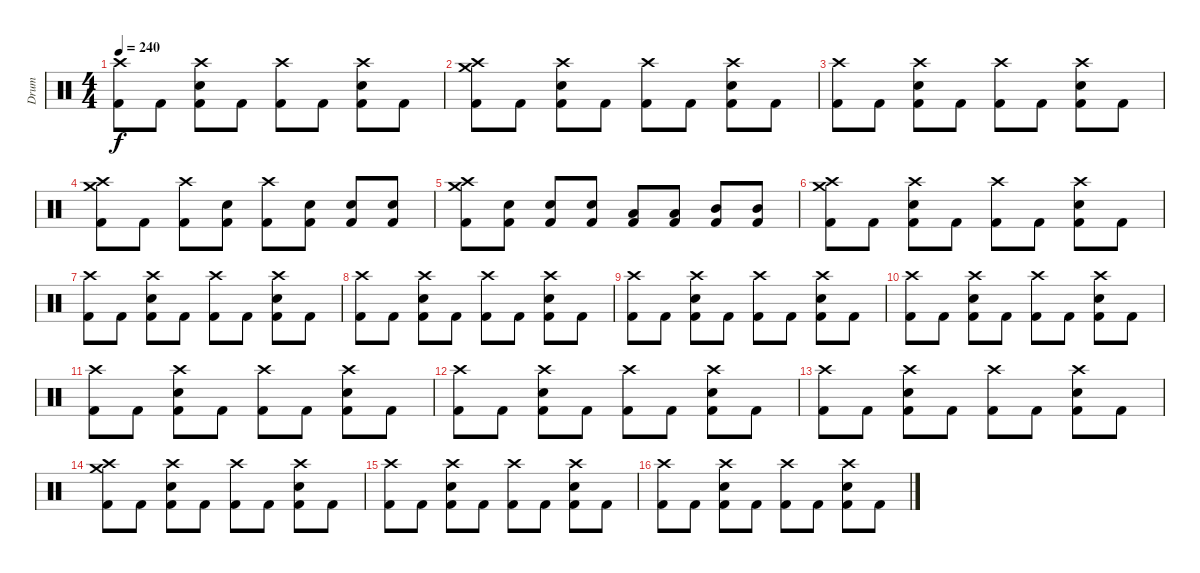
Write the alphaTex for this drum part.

\track ("Drum" "Drum") {instrument percussion}
\staff {score}
\articulation defaults
\ts (4 4)
\tempo 240
\clef neutral
\ks c
("Crash high (hit)" "Kick (hit) 2").8{dy f} "Kick (hit) 2".8 ("Crash high (hit)" "Kick (hit) 2" "Electric Snare (hit)").8 "Kick (hit) 2".8 ("Crash high (hit)" "Kick (hit) 2").8 "Kick (hit) 2".8 ("Crash high (hit)" "Kick (hit) 2" "Electric Snare (hit)").8 "Kick (hit) 2".8 |
("Crash high (hit)" "Kick (hit) 2" "Crash medium (hit)").8 "Kick (hit) 2".8 ("Crash high (hit)" "Kick (hit) 2" "Electric Snare (hit)").8 "Kick (hit) 2".8 ("Crash high (hit)" "Kick (hit) 2").8 "Kick (hit) 2".8 ("Crash high (hit)" "Kick (hit) 2" "Electric Snare (hit)").8 "Kick (hit) 2".8 |
("Crash high (hit)" "Kick (hit) 2").8 "Kick (hit) 2".8 ("Crash high (hit)" "Kick (hit) 2" "Electric Snare (hit)").8 "Kick (hit) 2".8 ("Crash high (hit)" "Kick (hit) 2").8 "Kick (hit) 2".8 ("Crash high (hit)" "Kick (hit) 2" "Electric Snare (hit)").8 "Kick (hit) 2".8 |
("Crash high (hit)" "Kick (hit) 2" "Crash medium (hit)").8 "Kick (hit) 2".8 ("Crash high (hit)" "Kick (hit) 2").8 ("Kick (hit) 2" "Electric Snare (hit)").8 ("Crash high (hit)" "Kick (hit) 2").8 ("Kick (hit) 2" "Electric Snare (hit)").8 ("Kick (hit) 2" "Electric Snare (hit)").8 ("Kick (hit) 2" "Electric Snare (hit)").8 |
("Crash high (hit)" "Kick (hit) 2" "Crash medium (hit)").8 ("Kick (hit) 2" "Electric Snare (hit)").8 ("Kick (hit) 2" "Electric Snare (hit)").8 ("Kick (hit) 2" "Electric Snare (hit)").8 ("Kick (hit) 2" "Low Tom (hit)").8 ("Kick (hit) 2" "Low Tom (hit)").8 ("Kick (hit) 2" "Mid Tom (hit)").8 ("Kick (hit) 2" "Mid Tom (hit)").8 |
("Crash high (hit)" "Kick (hit) 2" "Crash medium (hit)").8 "Kick (hit) 2".8 ("Crash high (hit)" "Kick (hit) 2" "Electric Snare (hit)").8 "Kick (hit) 2".8 ("Crash high (hit)" "Kick (hit) 2").8 "Kick (hit) 2".8 ("Crash high (hit)" "Kick (hit) 2" "Electric Snare (hit)").8 "Kick (hit) 2".8 |
("Crash high (hit)" "Kick (hit) 2").8 "Kick (hit) 2".8 ("Crash high (hit)" "Kick (hit) 2" "Electric Snare (hit)").8 "Kick (hit) 2".8 ("Crash high (hit)" "Kick (hit) 2").8 "Kick (hit) 2".8 ("Crash high (hit)" "Kick (hit) 2" "Electric Snare (hit)").8 "Kick (hit) 2".8 |
("Crash high (hit)" "Kick (hit) 2").8 "Kick (hit) 2".8 ("Crash high (hit)" "Kick (hit) 2" "Electric Snare (hit)").8 "Kick (hit) 2".8 ("Crash high (hit)" "Kick (hit) 2").8 "Kick (hit) 2".8 ("Crash high (hit)" "Kick (hit) 2" "Electric Snare (hit)").8 "Kick (hit) 2".8 |
("Crash high (hit)" "Kick (hit) 2").8 "Kick (hit) 2".8 ("Crash high (hit)" "Kick (hit) 2" "Electric Snare (hit)").8 "Kick (hit) 2".8 ("Crash high (hit)" "Kick (hit) 2").8 "Kick (hit) 2".8 ("Crash high (hit)" "Kick (hit) 2" "Electric Snare (hit)").8 "Kick (hit) 2".8 |
("Crash high (hit)" "Kick (hit) 2").8 "Kick (hit) 2".8 ("Crash high (hit)" "Kick (hit) 2" "Electric Snare (hit)").8 "Kick (hit) 2".8 ("Crash high (hit)" "Kick (hit) 2").8 "Kick (hit) 2".8 ("Crash high (hit)" "Kick (hit) 2" "Electric Snare (hit)").8 "Kick (hit) 2".8 |
("Crash high (hit)" "Kick (hit) 2").8 "Kick (hit) 2".8 ("Crash high (hit)" "Kick (hit) 2" "Electric Snare (hit)").8 "Kick (hit) 2".8 ("Crash high (hit)" "Kick (hit) 2").8 "Kick (hit) 2".8 ("Crash high (hit)" "Kick (hit) 2" "Electric Snare (hit)").8 "Kick (hit) 2".8 |
("Crash high (hit)" "Kick (hit) 2").8 "Kick (hit) 2".8 ("Crash high (hit)" "Kick (hit) 2" "Electric Snare (hit)").8 "Kick (hit) 2".8 ("Crash high (hit)" "Kick (hit) 2").8 "Kick (hit) 2".8 ("Crash high (hit)" "Kick (hit) 2" "Electric Snare (hit)").8 "Kick (hit) 2".8 |
("Crash high (hit)" "Kick (hit) 2").8 "Kick (hit) 2".8 ("Crash high (hit)" "Kick (hit) 2" "Electric Snare (hit)").8 "Kick (hit) 2".8 ("Crash high (hit)" "Kick (hit) 2").8 "Kick (hit) 2".8 ("Crash high (hit)" "Kick (hit) 2" "Electric Snare (hit)").8 "Kick (hit) 2".8 |
("Crash high (hit)" "Kick (hit) 2" "Crash medium (hit)").8 "Kick (hit) 2".8 ("Crash high (hit)" "Kick (hit) 2" "Electric Snare (hit)").8 "Kick (hit) 2".8 ("Crash high (hit)" "Kick (hit) 2").8 "Kick (hit) 2".8 ("Crash high (hit)" "Kick (hit) 2" "Electric Snare (hit)").8 "Kick (hit) 2".8 |
("Crash high (hit)" "Kick (hit) 2").8 "Kick (hit) 2".8 ("Crash high (hit)" "Kick (hit) 2" "Electric Snare (hit)").8 "Kick (hit) 2".8 ("Crash high (hit)" "Kick (hit) 2").8 "Kick (hit) 2".8 ("Crash high (hit)" "Kick (hit) 2" "Electric Snare (hit)").8 "Kick (hit) 2".8 |
("Crash high (hit)" "Kick (hit) 2").8 "Kick (hit) 2".8 ("Crash high (hit)" "Kick (hit) 2" "Electric Snare (hit)").8 "Kick (hit) 2".8 ("Crash high (hit)" "Kick (hit) 2").8 "Kick (hit) 2".8 ("Crash high (hit)" "Kick (hit) 2" "Electric Snare (hit)").8 "Kick (hit) 2".8
